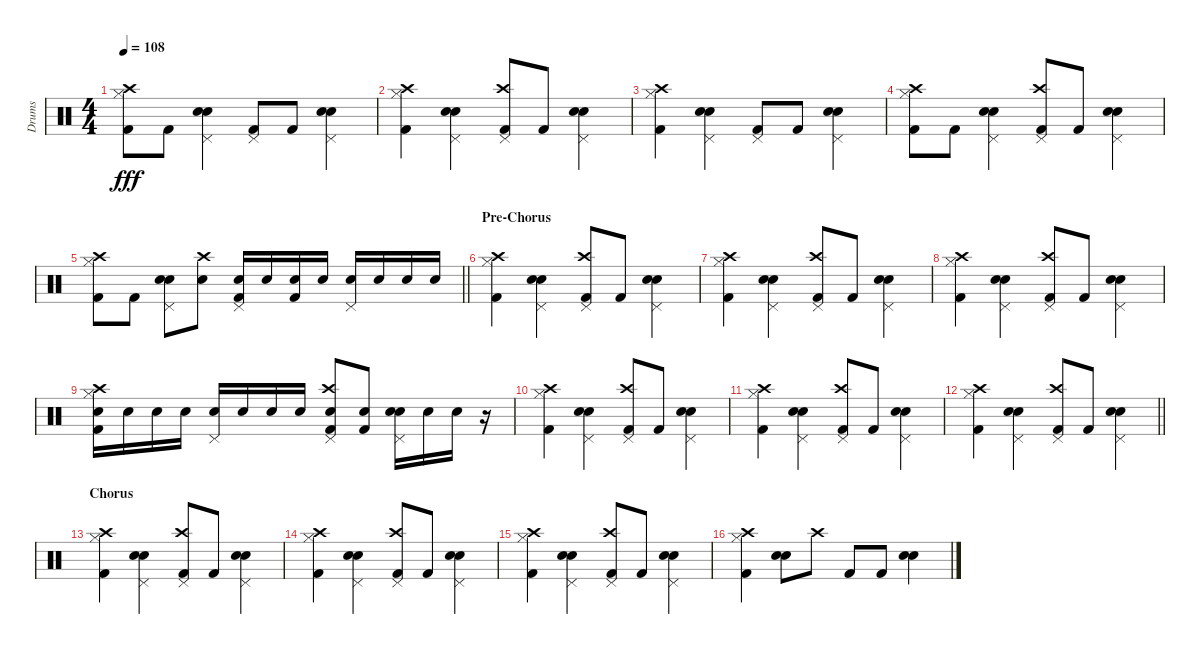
\track ("Drums" "Drums") {instrument percussion}
\staff {score}
\articulation defaults
\ts (4 4)
\tempo 108
\clef neutral
\ks c
("Hi-Hat (closed)" "Kick (hit) 2" "Crash high (hit)").8{dy fff} "Kick (hit) 2".8 ("Electric Snare (hit)" "Pedal Hi-Hat (hit)" "Snare (hit) 2").4 ("Pedal Hi-Hat (hit)" "Kick (hit) 2").8 "Kick (hit) 2".8 ("Electric Snare (hit)" "Pedal Hi-Hat (hit)" "Snare (hit) 2").4 |
("Hi-Hat (closed)" "Kick (hit) 2" "Crash high (hit)").4 ("Electric Snare (hit)" "Pedal Hi-Hat (hit)" "Snare (hit) 2").4 ("Pedal Hi-Hat (hit)" "Kick (hit) 2" "Crash high (hit)").8 "Kick (hit) 2".8 ("Electric Snare (hit)" "Pedal Hi-Hat (hit)" "Snare (hit) 2").4 |
("Hi-Hat (closed)" "Kick (hit) 2" "Crash high (hit)").4 ("Electric Snare (hit)" "Pedal Hi-Hat (hit)" "Snare (hit) 2").4 ("Pedal Hi-Hat (hit)" "Kick (hit) 2").8 "Kick (hit) 2".8 ("Electric Snare (hit)" "Pedal Hi-Hat (hit)" "Snare (hit) 2").4 |
("Hi-Hat (closed)" "Kick (hit) 2" "Crash high (hit)").8 "Kick (hit) 2".8 ("Electric Snare (hit)" "Pedal Hi-Hat (hit)" "Snare (hit) 2").4 ("Pedal Hi-Hat (hit)" "Kick (hit) 2" "Crash high (hit)").8 "Kick (hit) 2".8 ("Electric Snare (hit)" "Pedal Hi-Hat (hit)" "Snare (hit) 2").4 |
\barLineRight lightlight
("Hi-Hat (closed)" "Kick (hit) 2" "Crash high (hit)").8 "Kick (hit) 2".8 ("Electric Snare (hit)" "Pedal Hi-Hat (hit)" "Snare (hit) 2").8 ("Crash high (hit)" "Snare (hit) 2").8 ("Pedal Hi-Hat (hit)" "Kick (hit) 2" "Snare (hit) 2").16 "Snare (hit) 2".16 ("Kick (hit) 2" "Snare (hit) 2").16 "Snare (hit) 2".16 ("Pedal Hi-Hat (hit)" "Electric Snare (hit)").16 "Electric Snare (hit)".16 "Snare (hit) 2".16 "Snare (hit) 2".16 |
\section ("" "Pre-Chorus")
("Hi-Hat (closed)" "Kick (hit) 2" "Crash high (hit)").4 ("Electric Snare (hit)" "Pedal Hi-Hat (hit)" "Snare (hit) 2").4 ("Pedal Hi-Hat (hit)" "Kick (hit) 2" "Crash high (hit)").8 "Kick (hit) 2".8 ("Electric Snare (hit)" "Pedal Hi-Hat (hit)" "Snare (hit) 2").4 |
("Hi-Hat (closed)" "Kick (hit) 2" "Crash high (hit)").4 ("Electric Snare (hit)" "Pedal Hi-Hat (hit)" "Snare (hit) 2").4 ("Pedal Hi-Hat (hit)" "Kick (hit) 2" "Crash high (hit)").8 "Kick (hit) 2".8 ("Electric Snare (hit)" "Pedal Hi-Hat (hit)" "Snare (hit) 2").4 |
("Hi-Hat (closed)" "Kick (hit) 2" "Crash high (hit)").4 ("Electric Snare (hit)" "Pedal Hi-Hat (hit)" "Snare (hit) 2").4 ("Pedal Hi-Hat (hit)" "Kick (hit) 2" "Crash high (hit)").8 "Kick (hit) 2".8 ("Electric Snare (hit)" "Pedal Hi-Hat (hit)" "Snare (hit) 2").4 |
("Hi-Hat (closed)" "Kick (hit) 2" "Crash high (hit)" "Electric Snare (hit)").16 "Electric Snare (hit)".16 "Electric Snare (hit)".16 "Electric Snare (hit)".16 ("Pedal Hi-Hat (hit)" "Snare (hit) 2").16 "Snare (hit) 2".16 "Snare (hit) 2".16 "Snare (hit) 2".16 ("Pedal Hi-Hat (hit)" "Kick (hit) 2" "Crash high (hit)" "Snare (hit) 2").8 ("Kick (hit) 2" "Snare (hit) 2").8 ("Electric Snare (hit)" "Pedal Hi-Hat (hit)" "Snare (hit) 2").16 "Snare (hit) 2".16 "Snare (hit) 2".16 r.16 |
("Hi-Hat (closed)" "Kick (hit) 2" "Crash high (hit)").4 ("Electric Snare (hit)" "Pedal Hi-Hat (hit)" "Snare (hit) 2").4 ("Pedal Hi-Hat (hit)" "Kick (hit) 2" "Crash high (hit)").8 "Kick (hit) 2".8 ("Electric Snare (hit)" "Pedal Hi-Hat (hit)" "Snare (hit) 2").4 |
("Hi-Hat (closed)" "Kick (hit) 2" "Crash high (hit)").4 ("Electric Snare (hit)" "Pedal Hi-Hat (hit)" "Snare (hit) 2").4 ("Pedal Hi-Hat (hit)" "Kick (hit) 2" "Crash high (hit)").8 "Kick (hit) 2".8 ("Electric Snare (hit)" "Pedal Hi-Hat (hit)" "Snare (hit) 2").4 |
\barLineRight lightlight
("Hi-Hat (closed)" "Kick (hit) 2" "Crash high (hit)").4 ("Electric Snare (hit)" "Pedal Hi-Hat (hit)" "Snare (hit) 2").4 ("Pedal Hi-Hat (hit)" "Kick (hit) 2" "Crash high (hit)").8 "Kick (hit) 2".8 ("Electric Snare (hit)" "Pedal Hi-Hat (hit)" "Snare (hit) 2").4 |
\section ("" "Chorus")
("Hi-Hat (closed)" "Kick (hit) 2" "Crash high (hit)").4 ("Electric Snare (hit)" "Pedal Hi-Hat (hit)" "Snare (hit) 2").4 ("Pedal Hi-Hat (hit)" "Kick (hit) 2" "Crash high (hit)").8 "Kick (hit) 2".8 ("Electric Snare (hit)" "Pedal Hi-Hat (hit)" "Snare (hit) 2").4 |
("Hi-Hat (closed)" "Kick (hit) 2" "Crash high (hit)").4 ("Electric Snare (hit)" "Pedal Hi-Hat (hit)" "Snare (hit) 2").4 ("Pedal Hi-Hat (hit)" "Kick (hit) 2" "Crash high (hit)").8 "Kick (hit) 2".8 ("Electric Snare (hit)" "Pedal Hi-Hat (hit)" "Snare (hit) 2").4 |
("Hi-Hat (closed)" "Kick (hit) 2" "Crash high (hit)").4 ("Electric Snare (hit)" "Pedal Hi-Hat (hit)" "Snare (hit) 2").4 ("Pedal Hi-Hat (hit)" "Kick (hit) 2" "Crash high (hit)").8 "Kick (hit) 2".8 ("Electric Snare (hit)" "Pedal Hi-Hat (hit)" "Snare (hit) 2").4 |
("Hi-Hat (closed)" "Kick (hit) 2" "Crash high (hit)").4 ("Electric Snare (hit)" "Snare (hit) 2").8 "Crash high (hit)".8 "Kick (hit) 2".8 "Kick (hit) 2".8 ("Electric Snare (hit)" "Snare (hit) 2").4
